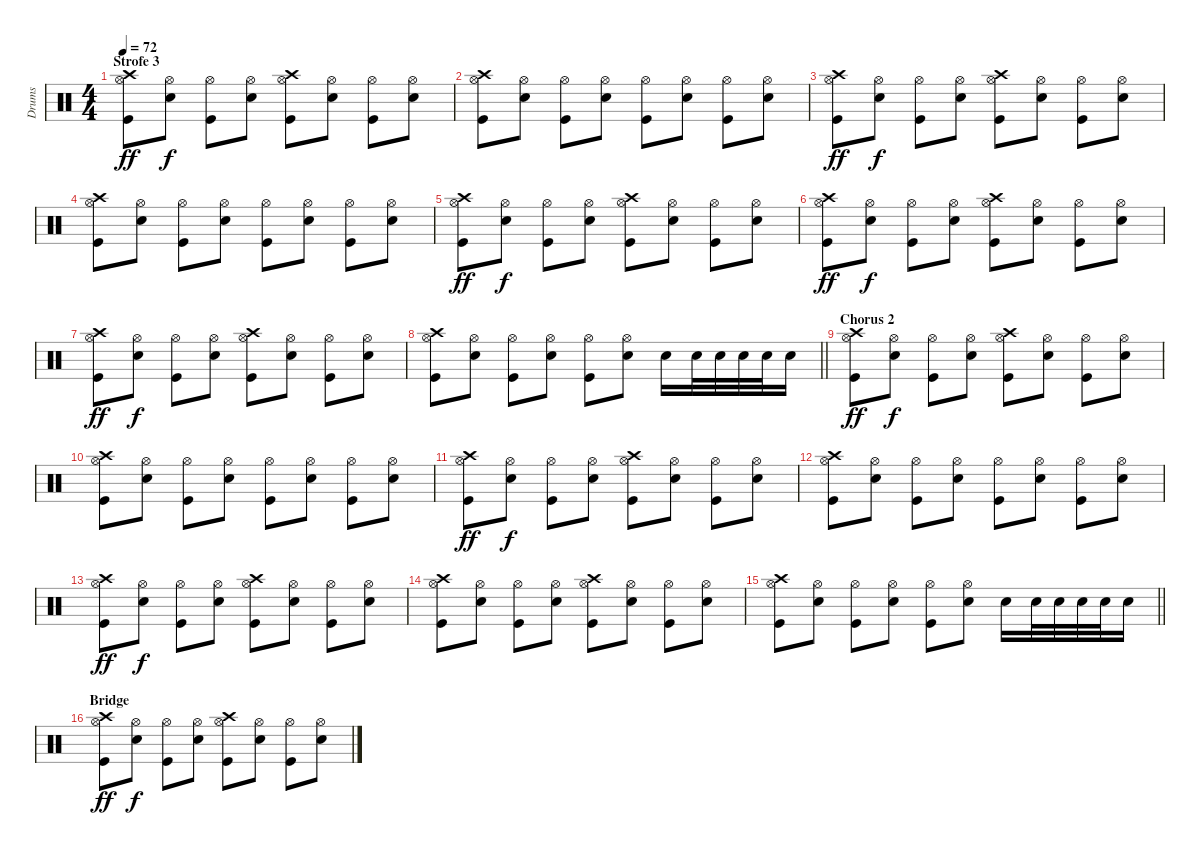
\track ("Drums" "Drums") {instrument percussion}
\staff {score}
\articulation defaults
\ts (4 4)
\section ("" "Strofe 3")
\tempo 72
\clef neutral
\ks c
("Crash high (hit)" "Hi-Hat (open)" "Kick (hit)").8{dy ff} ("Electric Snare (hit)" "Hi-Hat (open)").8{dy f} ("Hi-Hat (open)" "Kick (hit)").8 ("Electric Snare (hit)" "Hi-Hat (open)").8 ("Crash high (hit)" "Hi-Hat (open)" "Kick (hit)").8 ("Electric Snare (hit)" "Hi-Hat (open)").8 ("Hi-Hat (open)" "Kick (hit)").8 ("Electric Snare (hit)" "Hi-Hat (open)").8 |
("Crash high (hit)" "Hi-Hat (open)" "Kick (hit)").8 ("Electric Snare (hit)" "Hi-Hat (open)").8 ("Hi-Hat (open)" "Kick (hit)").8 ("Electric Snare (hit)" "Hi-Hat (open)").8 ("Hi-Hat (open)" "Kick (hit)").8 ("Electric Snare (hit)" "Hi-Hat (open)").8 ("Hi-Hat (open)" "Kick (hit)").8 ("Electric Snare (hit)" "Hi-Hat (open)").8 |
("Crash high (hit)" "Hi-Hat (open)" "Kick (hit)").8{dy ff} ("Electric Snare (hit)" "Hi-Hat (open)").8{dy f} ("Hi-Hat (open)" "Kick (hit)").8 ("Electric Snare (hit)" "Hi-Hat (open)").8 ("Crash high (hit)" "Hi-Hat (open)" "Kick (hit)").8 ("Electric Snare (hit)" "Hi-Hat (open)").8 ("Hi-Hat (open)" "Kick (hit)").8 ("Electric Snare (hit)" "Hi-Hat (open)").8 |
("Crash high (hit)" "Hi-Hat (open)" "Kick (hit)").8 ("Electric Snare (hit)" "Hi-Hat (open)").8 ("Hi-Hat (open)" "Kick (hit)").8 ("Electric Snare (hit)" "Hi-Hat (open)").8 ("Hi-Hat (open)" "Kick (hit)").8 ("Electric Snare (hit)" "Hi-Hat (open)").8 ("Hi-Hat (open)" "Kick (hit)").8 ("Electric Snare (hit)" "Hi-Hat (open)").8 |
("Crash high (hit)" "Hi-Hat (open)" "Kick (hit)").8{dy ff} ("Electric Snare (hit)" "Hi-Hat (open)").8{dy f} ("Hi-Hat (open)" "Kick (hit)").8 ("Electric Snare (hit)" "Hi-Hat (open)").8 ("Crash high (hit)" "Hi-Hat (open)" "Kick (hit)").8 ("Electric Snare (hit)" "Hi-Hat (open)").8 ("Hi-Hat (open)" "Kick (hit)").8 ("Electric Snare (hit)" "Hi-Hat (open)").8 |
("Crash high (hit)" "Hi-Hat (open)" "Kick (hit)").8{dy ff} ("Electric Snare (hit)" "Hi-Hat (open)").8{dy f} ("Hi-Hat (open)" "Kick (hit)").8 ("Electric Snare (hit)" "Hi-Hat (open)").8 ("Crash high (hit)" "Hi-Hat (open)" "Kick (hit)").8 ("Electric Snare (hit)" "Hi-Hat (open)").8 ("Hi-Hat (open)" "Kick (hit)").8 ("Electric Snare (hit)" "Hi-Hat (open)").8 |
("Crash high (hit)" "Hi-Hat (open)" "Kick (hit)").8{dy ff} ("Electric Snare (hit)" "Hi-Hat (open)").8{dy f} ("Hi-Hat (open)" "Kick (hit)").8 ("Electric Snare (hit)" "Hi-Hat (open)").8 ("Crash high (hit)" "Hi-Hat (open)" "Kick (hit)").8 ("Electric Snare (hit)" "Hi-Hat (open)").8 ("Hi-Hat (open)" "Kick (hit)").8 ("Electric Snare (hit)" "Hi-Hat (open)").8 |
\barLineRight lightlight
("Crash high (hit)" "Hi-Hat (open)" "Kick (hit)").8 ("Electric Snare (hit)" "Hi-Hat (open)").8 ("Hi-Hat (open)" "Kick (hit)").8 ("Electric Snare (hit)" "Hi-Hat (open)").8 ("Hi-Hat (open)" "Kick (hit)").8 ("Electric Snare (hit)" "Hi-Hat (open)").8 "Electric Snare (hit)".16 "Electric Snare (hit)".32 "Electric Snare (hit)".32 "Electric Snare (hit)".32 "Electric Snare (hit)".32 "Electric Snare (hit)".16 |
\section ("" "Chorus 2")
("Crash high (hit)" "Hi-Hat (open)" "Kick (hit)").8{dy ff} ("Electric Snare (hit)" "Hi-Hat (open)").8{dy f} ("Hi-Hat (open)" "Kick (hit)").8 ("Electric Snare (hit)" "Hi-Hat (open)").8 ("Crash high (hit)" "Hi-Hat (open)" "Kick (hit)").8 ("Electric Snare (hit)" "Hi-Hat (open)").8 ("Hi-Hat (open)" "Kick (hit)").8 ("Electric Snare (hit)" "Hi-Hat (open)").8 |
("Crash high (hit)" "Hi-Hat (open)" "Kick (hit)").8 ("Electric Snare (hit)" "Hi-Hat (open)").8 ("Hi-Hat (open)" "Kick (hit)").8 ("Electric Snare (hit)" "Hi-Hat (open)").8 ("Hi-Hat (open)" "Kick (hit)").8 ("Electric Snare (hit)" "Hi-Hat (open)").8 ("Hi-Hat (open)" "Kick (hit)").8 ("Electric Snare (hit)" "Hi-Hat (open)").8 |
("Crash high (hit)" "Hi-Hat (open)" "Kick (hit)").8{dy ff} ("Electric Snare (hit)" "Hi-Hat (open)").8{dy f} ("Hi-Hat (open)" "Kick (hit)").8 ("Electric Snare (hit)" "Hi-Hat (open)").8 ("Crash high (hit)" "Hi-Hat (open)" "Kick (hit)").8 ("Electric Snare (hit)" "Hi-Hat (open)").8 ("Hi-Hat (open)" "Kick (hit)").8 ("Electric Snare (hit)" "Hi-Hat (open)").8 |
("Crash high (hit)" "Hi-Hat (open)" "Kick (hit)").8 ("Electric Snare (hit)" "Hi-Hat (open)").8 ("Hi-Hat (open)" "Kick (hit)").8 ("Electric Snare (hit)" "Hi-Hat (open)").8 ("Hi-Hat (open)" "Kick (hit)").8 ("Electric Snare (hit)" "Hi-Hat (open)").8 ("Hi-Hat (open)" "Kick (hit)").8 ("Electric Snare (hit)" "Hi-Hat (open)").8 |
("Crash high (hit)" "Hi-Hat (open)" "Kick (hit)").8{dy ff} ("Electric Snare (hit)" "Hi-Hat (open)").8{dy f} ("Hi-Hat (open)" "Kick (hit)").8 ("Electric Snare (hit)" "Hi-Hat (open)").8 ("Crash high (hit)" "Hi-Hat (open)" "Kick (hit)").8 ("Electric Snare (hit)" "Hi-Hat (open)").8 ("Hi-Hat (open)" "Kick (hit)").8 ("Electric Snare (hit)" "Hi-Hat (open)").8 |
("Crash high (hit)" "Hi-Hat (open)" "Kick (hit)").8 ("Electric Snare (hit)" "Hi-Hat (open)").8 ("Hi-Hat (open)" "Kick (hit)").8 ("Electric Snare (hit)" "Hi-Hat (open)").8 ("Crash high (hit)" "Hi-Hat (open)" "Kick (hit)").8 ("Electric Snare (hit)" "Hi-Hat (open)").8 ("Hi-Hat (open)" "Kick (hit)").8 ("Electric Snare (hit)" "Hi-Hat (open)").8 |
\barLineRight lightlight
("Crash high (hit)" "Hi-Hat (open)" "Kick (hit)").8 ("Electric Snare (hit)" "Hi-Hat (open)").8 ("Hi-Hat (open)" "Kick (hit)").8 ("Electric Snare (hit)" "Hi-Hat (open)").8 ("Hi-Hat (open)" "Kick (hit)").8 ("Electric Snare (hit)" "Hi-Hat (open)").8 "Electric Snare (hit)".16 "Electric Snare (hit)".32 "Electric Snare (hit)".32 "Electric Snare (hit)".32 "Electric Snare (hit)".32 "Electric Snare (hit)".16 |
\section ("" "Bridge ")
("Crash high (hit)" "Hi-Hat (open)" "Kick (hit)").8{dy ff} ("Electric Snare (hit)" "Hi-Hat (open)").8{dy f} ("Hi-Hat (open)" "Kick (hit)").8 ("Electric Snare (hit)" "Hi-Hat (open)").8 ("Crash high (hit)" "Hi-Hat (open)" "Kick (hit)").8 ("Electric Snare (hit)" "Hi-Hat (open)").8 ("Hi-Hat (open)" "Kick (hit)").8 ("Electric Snare (hit)" "Hi-Hat (open)").8
